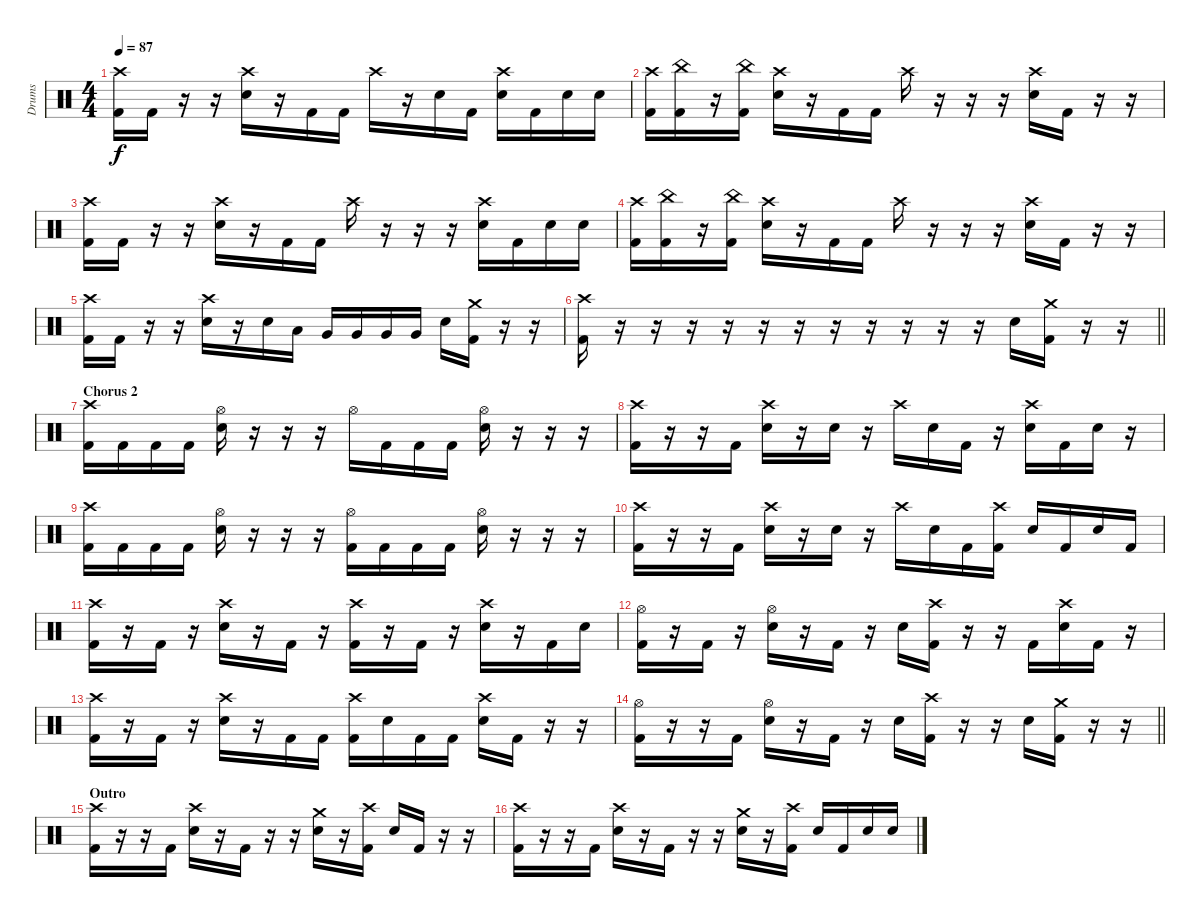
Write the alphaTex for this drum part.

\track ("Drums" "Drums") {instrument percussion}
\staff {score}
\articulation defaults
\ts (4 4)
\tempo 87
\clef neutral
\ks c
("Crash high (hit)" "Kick (hit) 2").16{dy f} "Kick (hit) 2".16 r.16 r.16 ("Crash high (hit)" "Electric Snare (hit)").16 r.16 "Kick (hit) 2".16 "Kick (hit) 2".16 "Crash high (hit)".16 r.16 "Electric Snare (hit)".16 "Kick (hit) 2".16 ("Crash high (hit)" "Electric Snare (hit)").16 "Kick (hit) 2".16 "Electric Snare (hit)".16 "Electric Snare (hit)".16 |
("Crash high (hit)" "Kick (hit) 2").16 ("China (hit)" "Kick (hit) 2").16 r.16 ("China (hit)" "Kick (hit) 2").16 ("Crash high (hit)" "Electric Snare (hit)").16 r.16 "Kick (hit) 2".16 "Kick (hit) 2".16 "Crash high (hit)".16 r.16 r.16 r.16 ("Crash high (hit)" "Electric Snare (hit)").16 "Kick (hit) 2".16 r.16 r.16 |
("Crash high (hit)" "Kick (hit) 2").16 "Kick (hit) 2".16 r.16 r.16 ("Crash high (hit)" "Electric Snare (hit)").16 r.16 "Kick (hit) 2".16 "Kick (hit) 2".16 "Crash high (hit)".16 r.16 r.16 r.16 ("Crash high (hit)" "Electric Snare (hit)").16 "Kick (hit) 2".16 "Electric Snare (hit)".16 "Electric Snare (hit)".16 |
("Crash high (hit)" "Kick (hit) 2").16 ("China (hit)" "Kick (hit) 2").16 r.16 ("China (hit)" "Kick (hit) 2").16 ("Crash high (hit)" "Electric Snare (hit)").16 r.16 "Kick (hit) 2".16 "Kick (hit) 2".16 "Crash high (hit)".16 r.16 r.16 r.16 ("Crash high (hit)" "Electric Snare (hit)").16 "Kick (hit) 2".16 r.16 r.16 |
("Crash high (hit)" "Kick (hit) 2").16 "Kick (hit) 2".16 r.16 r.16 ("Crash high (hit)" "Electric Snare (hit)").16 r.16 "Electric Snare (hit)".16 "Low Tom (hit)".16 "Very Low Tom (hit)".16 "Very Low Tom (hit)".16 "Very Low Tom (hit)".16 "Very Low Tom (hit)".16 "Electric Snare (hit)".16 ("Crash medium (hit)" "Kick (hit) 2").16 r.16 r.16 |
\barLineRight lightlight
("Crash high (hit)" "Kick (hit) 2").16 r.16 r.16 r.16 r.16 r.16 r.16 r.16 r.16 r.16 r.16 r.16 "Electric Snare (hit)".16 ("Crash medium (hit)" "Kick (hit) 2").16 r.16 r.16 |
\section ("" "Chorus 2")
("Crash high (hit)" "Kick (hit) 2").16 "Kick (hit) 2".16 "Kick (hit) 2".16 "Kick (hit) 2".16 ("Hi-Hat (open)" "Electric Snare (hit)").16 r.16 r.16 r.16 "Hi-Hat (open)".16 "Kick (hit) 2".16 "Kick (hit) 2".16 "Kick (hit) 2".16 ("Hi-Hat (open)" "Electric Snare (hit)").16 r.16 r.16 r.16 |
("Crash high (hit)" "Kick (hit) 2").16 r.16 r.16 "Kick (hit) 2".16 ("Crash high (hit)" "Electric Snare (hit)").16 r.16 "Electric Snare (hit)".16 r.16 "Crash high (hit)".16 "Electric Snare (hit)".16 "Kick (hit) 2".16 r.16 ("Crash high (hit)" "Electric Snare (hit)").16 "Kick (hit) 2".16 "Electric Snare (hit)".16 r.16 |
("Crash high (hit)" "Kick (hit) 2").16 "Kick (hit) 2".16 "Kick (hit) 2".16 "Kick (hit) 2".16 ("Hi-Hat (open)" "Electric Snare (hit)").16 r.16 r.16 r.16 ("Hi-Hat (open)" "Kick (hit) 2").16 "Kick (hit) 2".16 "Kick (hit) 2".16 "Kick (hit) 2".16 ("Hi-Hat (open)" "Electric Snare (hit)").16 r.16 r.16 r.16 |
("Crash high (hit)" "Kick (hit) 2").16 r.16 r.16 "Kick (hit) 2".16 ("Crash high (hit)" "Electric Snare (hit)").16 r.16 "Electric Snare (hit)".16 r.16 "Crash high (hit)".16 "Electric Snare (hit)".16 "Kick (hit) 2".16 ("Crash high (hit)" "Kick (hit) 2").16 "Electric Snare (hit)".16 "Kick (hit) 2".16 "Electric Snare (hit)".16 "Kick (hit) 2".16 |
("Crash high (hit)" "Kick (hit) 2").16 r.16 "Kick (hit) 2".16 r.16 ("Crash high (hit)" "Electric Snare (hit)").16 r.16 "Kick (hit) 2".16 r.16 ("Crash high (hit)" "Kick (hit) 2").16 r.16 "Kick (hit) 2".16 r.16 ("Crash high (hit)" "Electric Snare (hit)").16 r.16 "Kick (hit) 2".16 "Electric Snare (hit)".16 |
("Hi-Hat (open)" "Kick (hit) 2").16 r.16 "Kick (hit) 2".16 r.16 ("Hi-Hat (open)" "Electric Snare (hit)").16 r.16 "Kick (hit) 2".16 r.16 "Electric Snare (hit)".16 ("Crash high (hit)" "Kick (hit) 2").16 r.16 r.16 "Kick (hit) 2".16 ("Crash high (hit)" "Electric Snare (hit)").16 "Kick (hit) 2".16 r.16 |
("Crash high (hit)" "Kick (hit) 2").16 r.16 "Kick (hit) 2".16 r.16 ("Crash high (hit)" "Electric Snare (hit)").16 r.16 "Kick (hit) 2".16 "Kick (hit) 2".16 ("Crash high (hit)" "Kick (hit) 2").16 "Electric Snare (hit)".16 "Kick (hit) 2".16 "Kick (hit) 2".16 ("Crash high (hit)" "Electric Snare (hit)").16 "Kick (hit) 2".16 r.16 r.16 |
\barLineRight lightlight
("Hi-Hat (open)" "Kick (hit) 2").16 r.16 r.16 "Kick (hit) 2".16 ("Hi-Hat (open)" "Electric Snare (hit)").16 r.16 "Kick (hit) 2".16 r.16 "Electric Snare (hit)".16 ("Crash high (hit)" "Kick (hit) 2").16 r.16 r.16 "Electric Snare (hit)".16 ("Crash medium (hit)" "Kick (hit) 2").16 r.16 r.16 |
\section ("" "Outro")
("Crash high (hit)" "Kick (hit) 2").16 r.16 r.16 "Kick (hit) 2".16 ("Crash high (hit)" "Electric Snare (hit)").16 r.16 "Kick (hit) 2".16 r.16 r.16 ("Crash medium (hit)" "Electric Snare (hit)").16 r.16 ("Crash high (hit)" "Kick (hit) 2").16 "Electric Snare (hit)".16 "Kick (hit) 2".16 r.16 r.16 |
("Crash high (hit)" "Kick (hit) 2").16 r.16 r.16 "Kick (hit) 2".16 ("Crash high (hit)" "Electric Snare (hit)").16 r.16 "Kick (hit) 2".16 r.16 r.16 ("Crash medium (hit)" "Electric Snare (hit)").16 r.16 ("Crash high (hit)" "Kick (hit) 2").16 "Electric Snare (hit)".16 "Kick (hit) 2".16 "Electric Snare (hit)".16 "Electric Snare (hit)".16
